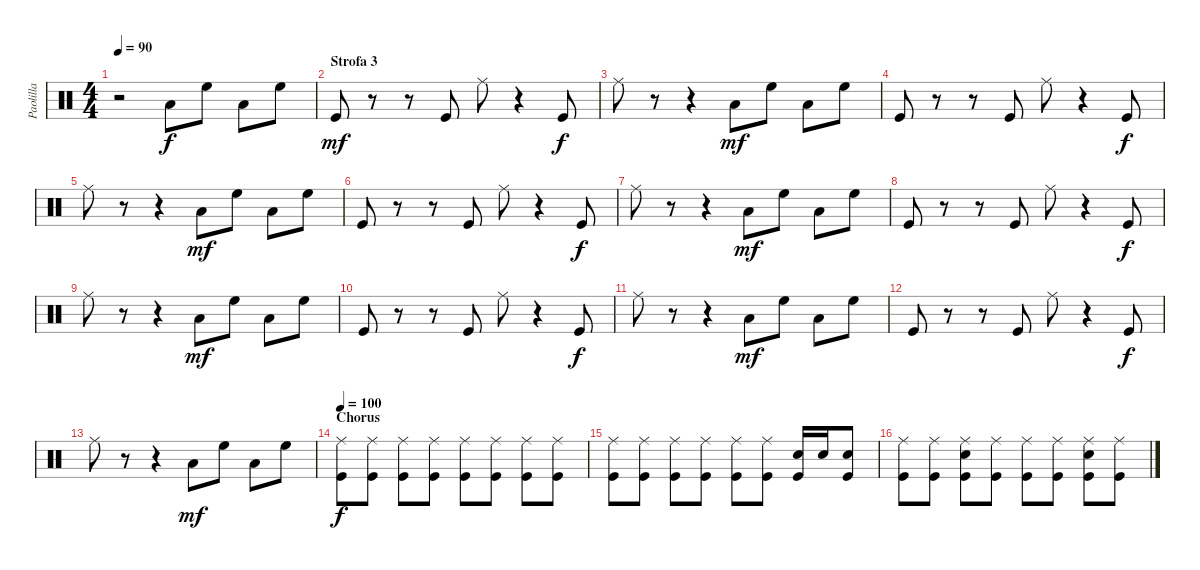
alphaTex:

\track ("Paolilla" "Paolilla") {instrument percussion}
\staff {score}
\articulation defaults
\ts (4 4)
\tempo 90
\clef neutral
\ks c
r.2{dy f} "Low Tom (hit)".8 "High Floor Tom (hit)".8 "Low Tom (hit)".8 "High Floor Tom (hit)".8 |
\section ("" "Strofa 3")
"Kick (hit)".8{dy mf} r.8 r.8 "Kick (hit)".8 "Ride (middle)".8 r.4 "Kick (hit)".8{dy f} |
"Ride (middle)".8 r.8 r.4 "Low Tom (hit)".8{dy mf} "High Floor Tom (hit)".8 "Low Tom (hit)".8 "High Floor Tom (hit)".8 |
"Kick (hit)".8 r.8 r.8 "Kick (hit)".8 "Ride (middle)".8 r.4 "Kick (hit)".8{dy f} |
"Ride (middle)".8 r.8 r.4 "Low Tom (hit)".8{dy mf} "High Floor Tom (hit)".8 "Low Tom (hit)".8 "High Floor Tom (hit)".8 |
"Kick (hit)".8 r.8 r.8 "Kick (hit)".8 "Ride (middle)".8 r.4 "Kick (hit)".8{dy f} |
"Ride (middle)".8 r.8 r.4 "Low Tom (hit)".8{dy mf} "High Floor Tom (hit)".8 "Low Tom (hit)".8 "High Floor Tom (hit)".8 |
"Kick (hit)".8 r.8 r.8 "Kick (hit)".8 "Ride (middle)".8 r.4 "Kick (hit)".8{dy f} |
"Ride (middle)".8 r.8 r.4 "Low Tom (hit)".8{dy mf} "High Floor Tom (hit)".8 "Low Tom (hit)".8 "High Floor Tom (hit)".8 |
"Kick (hit)".8 r.8 r.8 "Kick (hit)".8 "Ride (middle)".8 r.4 "Kick (hit)".8{dy f} |
"Ride (middle)".8 r.8 r.4 "Low Tom (hit)".8{dy mf} "High Floor Tom (hit)".8 "Low Tom (hit)".8 "High Floor Tom (hit)".8 |
"Kick (hit)".8 r.8 r.8 "Kick (hit)".8 "Ride (middle)".8 r.4 "Kick (hit)".8{dy f} |
"Ride (middle)".8 r.8 r.4 "Low Tom (hit)".8{dy mf} "High Floor Tom (hit)".8 "Low Tom (hit)".8 "High Floor Tom (hit)".8 |
\section ("" "Chorus")
\tempo 100
("Ride (middle)" "Kick (hit)").8{dy f} ("Ride (middle)" "Kick (hit)").8 ("Ride (middle)" "Kick (hit)").8 ("Ride (middle)" "Kick (hit)").8 ("Ride (middle)" "Kick (hit)").8 ("Ride (middle)" "Kick (hit)").8 ("Ride (middle)" "Kick (hit)").8 ("Ride (middle)" "Kick (hit)").8 |
("Ride (middle)" "Kick (hit)").8 ("Ride (middle)" "Kick (hit)").8 ("Ride (middle)" "Kick (hit)").8 ("Ride (middle)" "Kick (hit)").8 ("Ride (middle)" "Kick (hit)").8 ("Ride (middle)" "Kick (hit)").8 ("Snare (hit) 2" "Kick (hit)").16 "Snare (hit) 2".16 ("Snare (hit) 2" "Kick (hit)").8 |
("Ride (middle)" "Kick (hit)").8 ("Ride (middle)" "Kick (hit)").8 ("Snare (hit) 2" "Ride (middle)" "Kick (hit)").8 ("Ride (middle)" "Kick (hit)").8 ("Ride (middle)" "Kick (hit)").8 ("Ride (middle)" "Kick (hit)").8 ("Snare (hit) 2" "Ride (middle)" "Kick (hit)").8 ("Ride (middle)" "Kick (hit)").8
